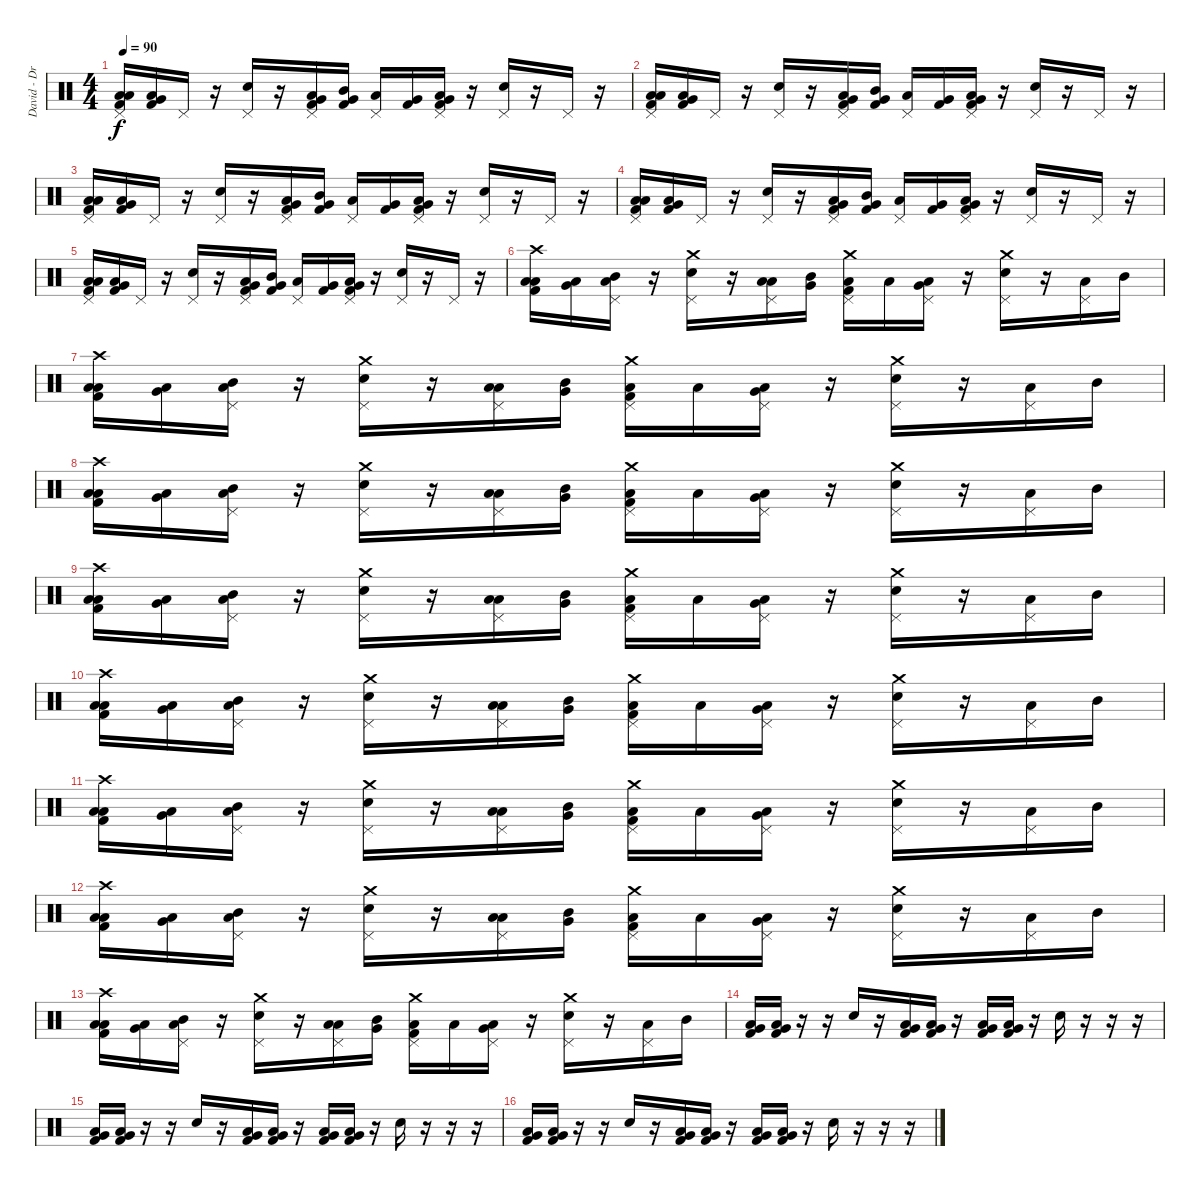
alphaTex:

\track ("David - Drums" "David - Dr") {instrument percussion}
\staff {score}
\articulation defaults
\ts (4 4)
\tempo 90
\clef neutral
\ks c
("Pedal Hi-Hat (hit)" "Low Tom (hit)" "Low Floor Tom (hit)" "Kick (hit) 2").16{dy f} ("Very Low Tom (hit)" "Low Floor Tom (hit)" "Kick (hit) 2").16 "Pedal Hi-Hat (hit)".16 r.16 ("Pedal Hi-Hat (hit)" "Electric Snare (hit)").16 r.16 ("Pedal Hi-Hat (hit)" "Very Low Tom (hit)" "Low Floor Tom (hit)" "Kick (hit) 2").16 ("Very Low Tom (hit)" "Mid Tom (hit)" "Kick (hit) 2").16 ("Pedal Hi-Hat (hit)" "Low Tom (hit)").16 ("Very Low Tom (hit)" "Kick (hit) 2").16 ("Pedal Hi-Hat (hit)" "Very Low Tom (hit)" "Low Floor Tom (hit)" "Kick (hit) 2").16 r.16 ("Pedal Hi-Hat (hit)" "Electric Snare (hit)").16 r.16 "Pedal Hi-Hat (hit)".16 r.16 |
("Pedal Hi-Hat (hit)" "Low Tom (hit)" "Low Floor Tom (hit)" "Kick (hit) 2").16 ("Very Low Tom (hit)" "Low Floor Tom (hit)" "Kick (hit) 2").16 "Pedal Hi-Hat (hit)".16 r.16 ("Pedal Hi-Hat (hit)" "Electric Snare (hit)").16 r.16 ("Pedal Hi-Hat (hit)" "Very Low Tom (hit)" "Low Floor Tom (hit)" "Kick (hit) 2").16 ("Very Low Tom (hit)" "Mid Tom (hit)" "Kick (hit) 2").16 ("Pedal Hi-Hat (hit)" "Low Tom (hit)").16 ("Very Low Tom (hit)" "Kick (hit) 2").16 ("Pedal Hi-Hat (hit)" "Very Low Tom (hit)" "Low Floor Tom (hit)" "Kick (hit) 2").16 r.16 ("Pedal Hi-Hat (hit)" "Electric Snare (hit)").16 r.16 "Pedal Hi-Hat (hit)".16 r.16 |
("Pedal Hi-Hat (hit)" "Low Tom (hit)" "Low Floor Tom (hit)" "Kick (hit) 2").16 ("Very Low Tom (hit)" "Low Floor Tom (hit)" "Kick (hit) 2").16 "Pedal Hi-Hat (hit)".16 r.16 ("Pedal Hi-Hat (hit)" "Electric Snare (hit)").16 r.16 ("Pedal Hi-Hat (hit)" "Very Low Tom (hit)" "Low Floor Tom (hit)" "Kick (hit) 2").16 ("Very Low Tom (hit)" "Mid Tom (hit)" "Kick (hit) 2").16 ("Pedal Hi-Hat (hit)" "Low Tom (hit)").16 ("Very Low Tom (hit)" "Kick (hit) 2").16 ("Pedal Hi-Hat (hit)" "Very Low Tom (hit)" "Low Floor Tom (hit)" "Kick (hit) 2").16 r.16 ("Pedal Hi-Hat (hit)" "Electric Snare (hit)").16 r.16 "Pedal Hi-Hat (hit)".16 r.16 |
("Pedal Hi-Hat (hit)" "Low Tom (hit)" "Low Floor Tom (hit)" "Kick (hit) 2").16 ("Very Low Tom (hit)" "Low Floor Tom (hit)" "Kick (hit) 2").16 "Pedal Hi-Hat (hit)".16 r.16 ("Pedal Hi-Hat (hit)" "Electric Snare (hit)").16 r.16 ("Pedal Hi-Hat (hit)" "Very Low Tom (hit)" "Low Floor Tom (hit)" "Kick (hit) 2").16 ("Very Low Tom (hit)" "Mid Tom (hit)" "Kick (hit) 2").16 ("Pedal Hi-Hat (hit)" "Low Tom (hit)").16 ("Very Low Tom (hit)" "Kick (hit) 2").16 ("Pedal Hi-Hat (hit)" "Very Low Tom (hit)" "Low Floor Tom (hit)" "Kick (hit) 2").16 r.16 ("Pedal Hi-Hat (hit)" "Electric Snare (hit)").16 r.16 "Pedal Hi-Hat (hit)".16 r.16 |
("Pedal Hi-Hat (hit)" "Low Tom (hit)" "Low Floor Tom (hit)" "Kick (hit) 2").16 ("Very Low Tom (hit)" "Low Floor Tom (hit)" "Kick (hit) 2").16 "Pedal Hi-Hat (hit)".16 r.16 ("Pedal Hi-Hat (hit)" "Electric Snare (hit)").16 r.16 ("Pedal Hi-Hat (hit)" "Very Low Tom (hit)" "Low Floor Tom (hit)" "Kick (hit) 2").16 ("Very Low Tom (hit)" "Mid Tom (hit)" "Kick (hit) 2").16 ("Pedal Hi-Hat (hit)" "Low Tom (hit)").16 ("Very Low Tom (hit)" "Kick (hit) 2").16 ("Pedal Hi-Hat (hit)" "Very Low Tom (hit)" "Low Floor Tom (hit)" "Kick (hit) 2").16 r.16 ("Pedal Hi-Hat (hit)" "Electric Snare (hit)").16 r.16 "Pedal Hi-Hat (hit)".16 r.16 |
("Crash high (hit)" "Low Tom (hit)" "Low Floor Tom (hit)" "Kick (hit) 2").16 ("Very Low Tom (hit)" "Low Floor Tom (hit)").16 ("Pedal Hi-Hat (hit)" "Mid Tom (hit)" "Low Tom (hit)").16 r.16 ("Pedal Hi-Hat (hit)" "Crash medium (hit)" "Electric Snare (hit)").16 r.16 ("Pedal Hi-Hat (hit)" "Low Tom (hit)" "Low Floor Tom (hit)").16 ("Very Low Tom (hit)" "Mid Tom (hit)").16 ("Pedal Hi-Hat (hit)" "Crash medium (hit)" "Low Tom (hit)" "Kick (hit) 2").16 "Low Tom (hit)".16 ("Pedal Hi-Hat (hit)" "Very Low Tom (hit)" "Low Floor Tom (hit)").16 r.16 ("Pedal Hi-Hat (hit)" "Crash medium (hit)" "Electric Snare (hit)").16 r.16 ("Pedal Hi-Hat (hit)" "Low Tom (hit)").16 "Mid Tom (hit)".16 |
("Crash high (hit)" "Low Tom (hit)" "Low Floor Tom (hit)" "Kick (hit) 2").16 ("Very Low Tom (hit)" "Low Floor Tom (hit)").16 ("Pedal Hi-Hat (hit)" "Mid Tom (hit)" "Low Tom (hit)").16 r.16 ("Pedal Hi-Hat (hit)" "Crash medium (hit)" "Electric Snare (hit)").16 r.16 ("Pedal Hi-Hat (hit)" "Low Tom (hit)" "Low Floor Tom (hit)").16 ("Very Low Tom (hit)" "Mid Tom (hit)").16 ("Pedal Hi-Hat (hit)" "Crash medium (hit)" "Low Tom (hit)" "Kick (hit) 2").16 "Low Tom (hit)".16 ("Pedal Hi-Hat (hit)" "Very Low Tom (hit)" "Low Floor Tom (hit)").16 r.16 ("Pedal Hi-Hat (hit)" "Crash medium (hit)" "Electric Snare (hit)").16 r.16 ("Pedal Hi-Hat (hit)" "Low Tom (hit)").16 "Mid Tom (hit)".16 |
("Crash high (hit)" "Low Tom (hit)" "Low Floor Tom (hit)" "Kick (hit) 2").16 ("Very Low Tom (hit)" "Low Floor Tom (hit)").16 ("Pedal Hi-Hat (hit)" "Mid Tom (hit)" "Low Tom (hit)").16 r.16 ("Pedal Hi-Hat (hit)" "Crash medium (hit)" "Electric Snare (hit)").16 r.16 ("Pedal Hi-Hat (hit)" "Low Tom (hit)" "Low Floor Tom (hit)").16 ("Very Low Tom (hit)" "Mid Tom (hit)").16 ("Pedal Hi-Hat (hit)" "Crash medium (hit)" "Low Tom (hit)" "Kick (hit) 2").16 "Low Tom (hit)".16 ("Pedal Hi-Hat (hit)" "Very Low Tom (hit)" "Low Floor Tom (hit)").16 r.16 ("Pedal Hi-Hat (hit)" "Crash medium (hit)" "Electric Snare (hit)").16 r.16 ("Pedal Hi-Hat (hit)" "Low Tom (hit)").16 "Mid Tom (hit)".16 |
("Crash high (hit)" "Low Tom (hit)" "Low Floor Tom (hit)" "Kick (hit) 2").16 ("Very Low Tom (hit)" "Low Floor Tom (hit)").16 ("Pedal Hi-Hat (hit)" "Mid Tom (hit)" "Low Tom (hit)").16 r.16 ("Pedal Hi-Hat (hit)" "Crash medium (hit)" "Electric Snare (hit)").16 r.16 ("Pedal Hi-Hat (hit)" "Low Tom (hit)" "Low Floor Tom (hit)").16 ("Very Low Tom (hit)" "Mid Tom (hit)").16 ("Pedal Hi-Hat (hit)" "Crash medium (hit)" "Low Tom (hit)" "Kick (hit) 2").16 "Low Tom (hit)".16 ("Pedal Hi-Hat (hit)" "Very Low Tom (hit)" "Low Floor Tom (hit)").16 r.16 ("Pedal Hi-Hat (hit)" "Crash medium (hit)" "Electric Snare (hit)").16 r.16 ("Pedal Hi-Hat (hit)" "Low Tom (hit)").16 "Mid Tom (hit)".16 |
("Crash high (hit)" "Low Tom (hit)" "Low Floor Tom (hit)" "Kick (hit) 2").16 ("Very Low Tom (hit)" "Low Floor Tom (hit)").16 ("Pedal Hi-Hat (hit)" "Mid Tom (hit)" "Low Tom (hit)").16 r.16 ("Pedal Hi-Hat (hit)" "Crash medium (hit)" "Electric Snare (hit)").16 r.16 ("Pedal Hi-Hat (hit)" "Low Tom (hit)" "Low Floor Tom (hit)").16 ("Very Low Tom (hit)" "Mid Tom (hit)").16 ("Pedal Hi-Hat (hit)" "Crash medium (hit)" "Low Tom (hit)" "Kick (hit) 2").16 "Low Tom (hit)".16 ("Pedal Hi-Hat (hit)" "Very Low Tom (hit)" "Low Floor Tom (hit)").16 r.16 ("Pedal Hi-Hat (hit)" "Crash medium (hit)" "Electric Snare (hit)").16 r.16 ("Pedal Hi-Hat (hit)" "Low Tom (hit)").16 "Mid Tom (hit)".16 |
("Crash high (hit)" "Low Tom (hit)" "Low Floor Tom (hit)" "Kick (hit) 2").16 ("Very Low Tom (hit)" "Low Floor Tom (hit)").16 ("Pedal Hi-Hat (hit)" "Mid Tom (hit)" "Low Tom (hit)").16 r.16 ("Pedal Hi-Hat (hit)" "Crash medium (hit)" "Electric Snare (hit)").16 r.16 ("Pedal Hi-Hat (hit)" "Low Tom (hit)" "Low Floor Tom (hit)").16 ("Very Low Tom (hit)" "Mid Tom (hit)").16 ("Pedal Hi-Hat (hit)" "Crash medium (hit)" "Low Tom (hit)" "Kick (hit) 2").16 "Low Tom (hit)".16 ("Pedal Hi-Hat (hit)" "Very Low Tom (hit)" "Low Floor Tom (hit)").16 r.16 ("Pedal Hi-Hat (hit)" "Crash medium (hit)" "Electric Snare (hit)").16 r.16 ("Pedal Hi-Hat (hit)" "Low Tom (hit)").16 "Mid Tom (hit)".16 |
("Crash high (hit)" "Low Tom (hit)" "Low Floor Tom (hit)" "Kick (hit) 2").16 ("Very Low Tom (hit)" "Low Floor Tom (hit)").16 ("Pedal Hi-Hat (hit)" "Mid Tom (hit)" "Low Tom (hit)").16 r.16 ("Pedal Hi-Hat (hit)" "Crash medium (hit)" "Electric Snare (hit)").16 r.16 ("Pedal Hi-Hat (hit)" "Low Tom (hit)" "Low Floor Tom (hit)").16 ("Very Low Tom (hit)" "Mid Tom (hit)").16 ("Pedal Hi-Hat (hit)" "Crash medium (hit)" "Low Tom (hit)" "Kick (hit) 2").16 "Low Tom (hit)".16 ("Pedal Hi-Hat (hit)" "Very Low Tom (hit)" "Low Floor Tom (hit)").16 r.16 ("Pedal Hi-Hat (hit)" "Crash medium (hit)" "Electric Snare (hit)").16 r.16 ("Pedal Hi-Hat (hit)" "Low Tom (hit)").16 "Mid Tom (hit)".16 |
("Crash high (hit)" "Low Tom (hit)" "Low Floor Tom (hit)" "Kick (hit) 2").16 ("Very Low Tom (hit)" "Low Floor Tom (hit)").16 ("Pedal Hi-Hat (hit)" "Mid Tom (hit)" "Low Tom (hit)").16 r.16 ("Pedal Hi-Hat (hit)" "Crash medium (hit)" "Electric Snare (hit)").16 r.16 ("Pedal Hi-Hat (hit)" "Low Tom (hit)" "Low Floor Tom (hit)").16 ("Very Low Tom (hit)" "Mid Tom (hit)").16 ("Pedal Hi-Hat (hit)" "Crash medium (hit)" "Low Tom (hit)" "Kick (hit) 2").16 "Low Tom (hit)".16 ("Pedal Hi-Hat (hit)" "Very Low Tom (hit)" "Low Floor Tom (hit)").16 r.16 ("Pedal Hi-Hat (hit)" "Crash medium (hit)" "Electric Snare (hit)").16 r.16 ("Pedal Hi-Hat (hit)" "Low Tom (hit)").16 "Mid Tom (hit)".16 |
("Very Low Tom (hit)" "Low Floor Tom (hit)" "Kick (hit) 2").16 ("Very Low Tom (hit)" "Low Floor Tom (hit)" "Kick (hit) 2").16 r.16 r.16 "Electric Snare (hit)".16 r.16 ("Very Low Tom (hit)" "Low Floor Tom (hit)" "Kick (hit) 2").16 ("Very Low Tom (hit)" "Low Floor Tom (hit)" "Kick (hit) 2").16 r.16 ("Very Low Tom (hit)" "Low Floor Tom (hit)" "Kick (hit) 2").16 ("Very Low Tom (hit)" "Low Floor Tom (hit)" "Kick (hit) 2").16 r.16 "Electric Snare (hit)".16 r.16 r.16 r.16 |
("Very Low Tom (hit)" "Low Floor Tom (hit)" "Kick (hit) 2").16 ("Very Low Tom (hit)" "Low Floor Tom (hit)" "Kick (hit) 2").16 r.16 r.16 "Electric Snare (hit)".16 r.16 ("Very Low Tom (hit)" "Low Floor Tom (hit)" "Kick (hit) 2").16 ("Very Low Tom (hit)" "Low Floor Tom (hit)" "Kick (hit) 2").16 r.16 ("Very Low Tom (hit)" "Low Floor Tom (hit)" "Kick (hit) 2").16 ("Very Low Tom (hit)" "Low Floor Tom (hit)" "Kick (hit) 2").16 r.16 "Electric Snare (hit)".16 r.16 r.16 r.16 |
("Very Low Tom (hit)" "Low Floor Tom (hit)" "Kick (hit) 2").16 ("Very Low Tom (hit)" "Low Floor Tom (hit)" "Kick (hit) 2").16 r.16 r.16 "Electric Snare (hit)".16 r.16 ("Very Low Tom (hit)" "Low Floor Tom (hit)" "Kick (hit) 2").16 ("Very Low Tom (hit)" "Low Floor Tom (hit)" "Kick (hit) 2").16 r.16 ("Very Low Tom (hit)" "Low Floor Tom (hit)" "Kick (hit) 2").16 ("Very Low Tom (hit)" "Low Floor Tom (hit)" "Kick (hit) 2").16 r.16 "Electric Snare (hit)".16 r.16 r.16 r.16
